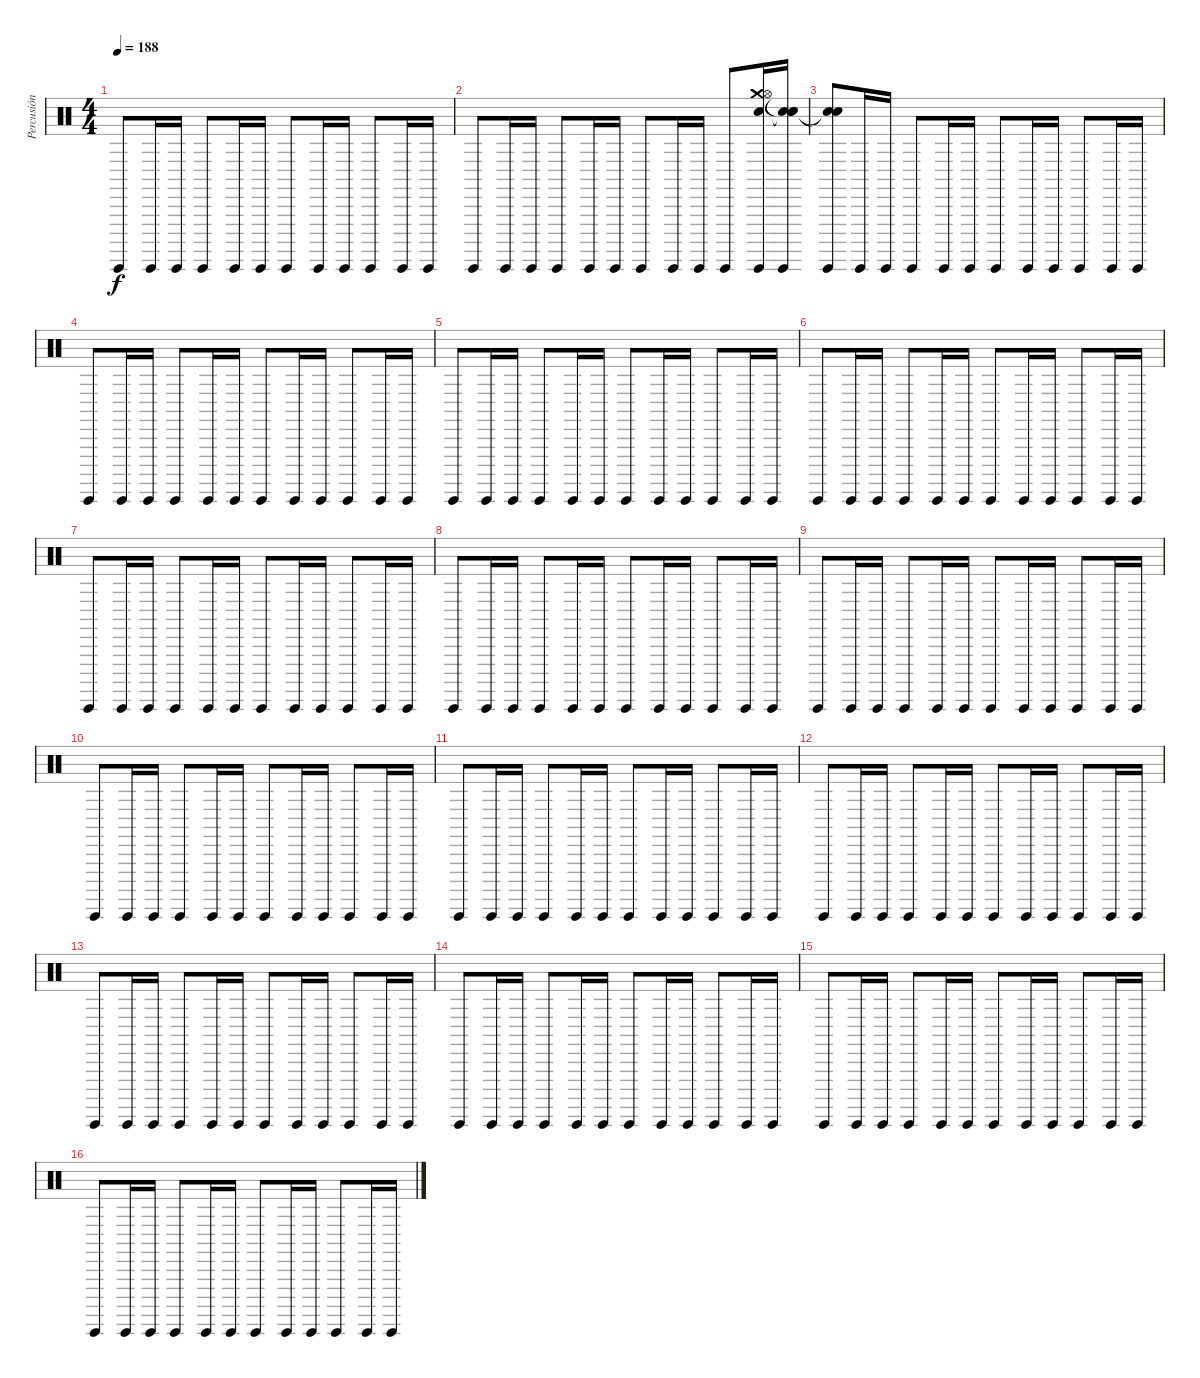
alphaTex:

\track ("Percusión" "Percusión") {instrument percussion}
\staff {score}
\articulation defaults
\ts (4 4)
\tempo 188
\clef neutral
\ks c "Guiro (hit)".8{dy f} "Guiro (hit)".16 "Guiro (hit)".16 "Guiro (hit)".8 "Guiro (hit)".16 "Guiro (hit)".16 "Guiro (hit)".8 "Guiro (hit)".16 "Guiro (hit)".16 "Guiro (hit)".8 "Guiro (hit)".16 "Guiro (hit)".16
|
"Guiro (hit)".8 "Guiro (hit)".16 "Guiro (hit)".16 "Guiro (hit)".8 "Guiro (hit)".16 "Guiro (hit)".16 "Guiro (hit)".8 "Guiro (hit)".16 "Guiro (hit)".16 "Guiro (hit)".8 ("Crash medium (hit)" "Electric Snare (hit)" "Hi-Hat (open)" "Guiro (hit)").16 ("Snare (hit)"{t} "Snare (hit)"{t} "Snare (hit)"{t} "Guiro (hit)").16 |
("Snare (hit)"{t} "Snare (hit)"{t} "Guiro (hit)").8 "Guiro (hit)".16 "Guiro (hit)".16 "Guiro (hit)".8 "Guiro (hit)".16 "Guiro (hit)".16 "Guiro (hit)".8 "Guiro (hit)".16 "Guiro (hit)".16 "Guiro (hit)".8 "Guiro (hit)".16 "Guiro (hit)".16 |
"Guiro (hit)".8 "Guiro (hit)".16 "Guiro (hit)".16 "Guiro (hit)".8 "Guiro (hit)".16 "Guiro (hit)".16 "Guiro (hit)".8 "Guiro (hit)".16 "Guiro (hit)".16 "Guiro (hit)".8 "Guiro (hit)".16 "Guiro (hit)".16 |
"Guiro (hit)".8 "Guiro (hit)".16 "Guiro (hit)".16 "Guiro (hit)".8 "Guiro (hit)".16 "Guiro (hit)".16 "Guiro (hit)".8 "Guiro (hit)".16 "Guiro (hit)".16 "Guiro (hit)".8 "Guiro (hit)".16 "Guiro (hit)".16 |
"Guiro (hit)".8 "Guiro (hit)".16 "Guiro (hit)".16 "Guiro (hit)".8 "Guiro (hit)".16 "Guiro (hit)".16 "Guiro (hit)".8 "Guiro (hit)".16 "Guiro (hit)".16 "Guiro (hit)".8 "Guiro (hit)".16 "Guiro (hit)".16 |
"Guiro (hit)".8 "Guiro (hit)".16 "Guiro (hit)".16 "Guiro (hit)".8 "Guiro (hit)".16 "Guiro (hit)".16 "Guiro (hit)".8 "Guiro (hit)".16 "Guiro (hit)".16 "Guiro (hit)".8 "Guiro (hit)".16 "Guiro (hit)".16 |
"Guiro (hit)".8 "Guiro (hit)".16 "Guiro (hit)".16 "Guiro (hit)".8 "Guiro (hit)".16 "Guiro (hit)".16 "Guiro (hit)".8 "Guiro (hit)".16 "Guiro (hit)".16 "Guiro (hit)".8 "Guiro (hit)".16 "Guiro (hit)".16 |
"Guiro (hit)".8 "Guiro (hit)".16 "Guiro (hit)".16 "Guiro (hit)".8 "Guiro (hit)".16 "Guiro (hit)".16 "Guiro (hit)".8 "Guiro (hit)".16 "Guiro (hit)".16 "Guiro (hit)".8 "Guiro (hit)".16 "Guiro (hit)".16 |
"Guiro (hit)".8 "Guiro (hit)".16 "Guiro (hit)".16 "Guiro (hit)".8 "Guiro (hit)".16 "Guiro (hit)".16 "Guiro (hit)".8 "Guiro (hit)".16 "Guiro (hit)".16 "Guiro (hit)".8 "Guiro (hit)".16 "Guiro (hit)".16 |
"Guiro (hit)".8 "Guiro (hit)".16 "Guiro (hit)".16 "Guiro (hit)".8 "Guiro (hit)".16 "Guiro (hit)".16 "Guiro (hit)".8 "Guiro (hit)".16 "Guiro (hit)".16 "Guiro (hit)".8 "Guiro (hit)".16 "Guiro (hit)".16 |
"Guiro (hit)".8 "Guiro (hit)".16 "Guiro (hit)".16 "Guiro (hit)".8 "Guiro (hit)".16 "Guiro (hit)".16 "Guiro (hit)".8 "Guiro (hit)".16 "Guiro (hit)".16 "Guiro (hit)".8 "Guiro (hit)".16 "Guiro (hit)".16 |
"Guiro (hit)".8 "Guiro (hit)".16 "Guiro (hit)".16 "Guiro (hit)".8 "Guiro (hit)".16 "Guiro (hit)".16 "Guiro (hit)".8 "Guiro (hit)".16 "Guiro (hit)".16 "Guiro (hit)".8 "Guiro (hit)".16 "Guiro (hit)".16 |
"Guiro (hit)".8 "Guiro (hit)".16 "Guiro (hit)".16 "Guiro (hit)".8 "Guiro (hit)".16 "Guiro (hit)".16 "Guiro (hit)".8 "Guiro (hit)".16 "Guiro (hit)".16 "Guiro (hit)".8 "Guiro (hit)".16 "Guiro (hit)".16 |
"Guiro (hit)".8 "Guiro (hit)".16 "Guiro (hit)".16 "Guiro (hit)".8 "Guiro (hit)".16 "Guiro (hit)".16 "Guiro (hit)".8 "Guiro (hit)".16 "Guiro (hit)".16 "Guiro (hit)".8 "Guiro (hit)".16 "Guiro (hit)".16 |
"Guiro (hit)".8 "Guiro (hit)".16 "Guiro (hit)".16 "Guiro (hit)".8 "Guiro (hit)".16 "Guiro (hit)".16 "Guiro (hit)".8 "Guiro (hit)".16 "Guiro (hit)".16 "Guiro (hit)".8 "Guiro (hit)".16 "Guiro (hit)".16
